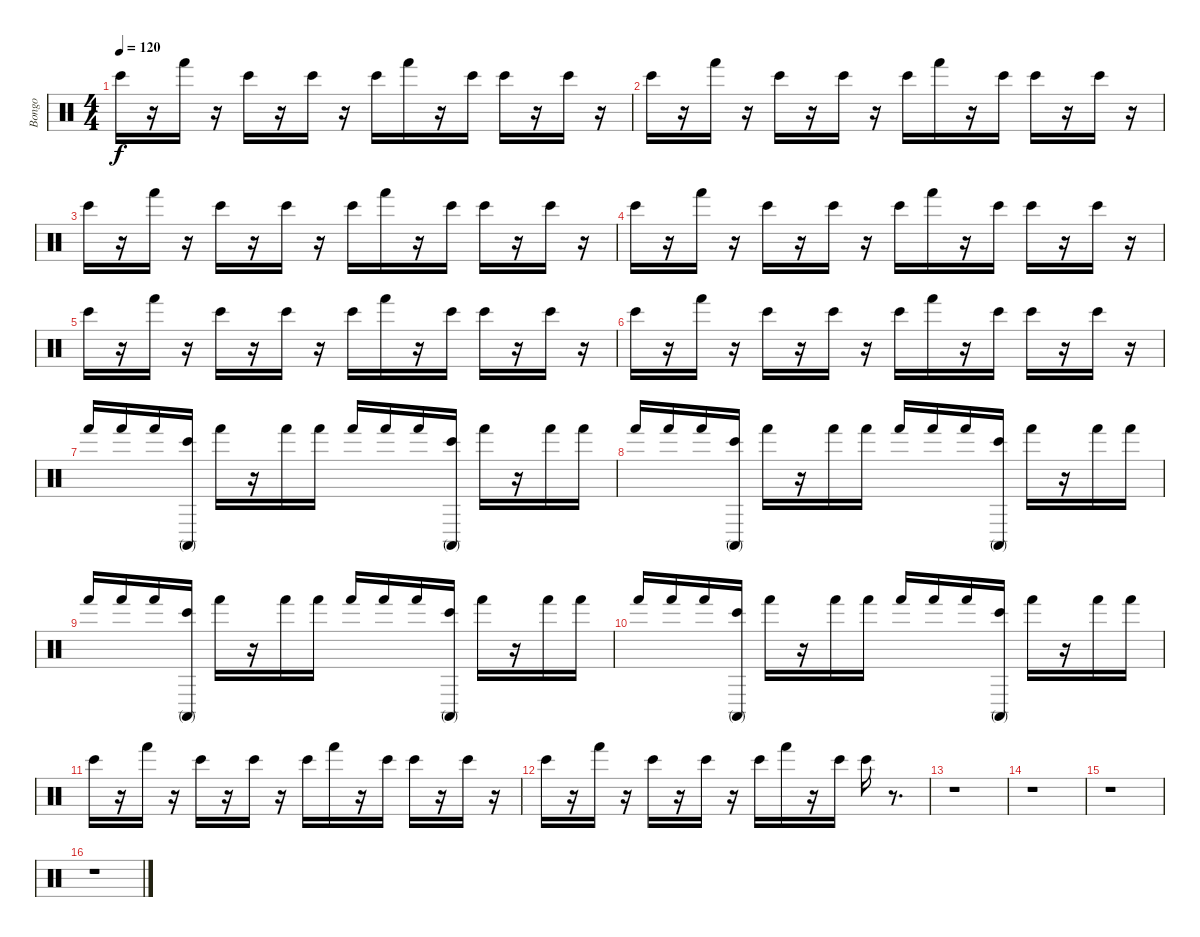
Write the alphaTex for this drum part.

\track ("Bongo" "Bongo") {instrument percussion}
\staff {score}
\articulation defaults
\ts (4 4)
\tempo 120
\clef neutral
\ks c "Bongo High (hit)".16{dy f}
r.16 "Hand (hit)".16 r.16 "Bongo High (hit)".16 r.16 "Bongo High (hit)".16 r.16 "Bongo High (hit)".16 "Hand (hit)".16 r.16 "Bongo High (hit)".16 "Bongo High (hit)".16 r.16 "Bongo High (hit)".16 r.16 |
"Bongo High (hit)".16 r.16 "Hand (hit)".16 r.16 "Bongo High (hit)".16 r.16 "Bongo High (hit)".16 r.16 "Bongo High (hit)".16 "Hand (hit)".16 r.16 "Bongo High (hit)".16 "Bongo High (hit)".16 r.16 "Bongo High (hit)".16 r.16 |
"Bongo High (hit)".16 r.16 "Hand (hit)".16 r.16 "Bongo High (hit)".16 r.16 "Bongo High (hit)".16 r.16 "Bongo High (hit)".16 "Hand (hit)".16 r.16 "Bongo High (hit)".16 "Bongo High (hit)".16 r.16 "Bongo High (hit)".16 r.16 |
"Bongo High (hit)".16 r.16 "Hand (hit)".16 r.16 "Bongo High (hit)".16 r.16 "Bongo High (hit)".16 r.16 "Bongo High (hit)".16 "Hand (hit)".16 r.16 "Bongo High (hit)".16 "Bongo High (hit)".16 r.16 "Bongo High (hit)".16 r.16 |
"Bongo High (hit)".16 r.16 "Hand (hit)".16 r.16 "Bongo High (hit)".16 r.16 "Bongo High (hit)".16 r.16 "Bongo High (hit)".16 "Hand (hit)".16 r.16 "Bongo High (hit)".16 "Bongo High (hit)".16 r.16 "Bongo High (hit)".16 r.16 |
"Bongo High (hit)".16 r.16 "Hand (hit)".16 r.16 "Bongo High (hit)".16 r.16 "Bongo High (hit)".16 r.16 "Bongo High (hit)".16 "Hand (hit)".16 r.16 "Bongo High (hit)".16 "Bongo High (hit)".16 r.16 "Bongo High (hit)".16 r.16 |
"Hand (hit)".16 "Hand (hit)".16 "Hand (hit)".16 ("Bongo High (hit)" "Conga high (mute)").16 "Hand (hit)".16 r.16 "Hand (hit)".16 "Hand (hit)".16 "Hand (hit)".16 "Hand (hit)".16 "Hand (hit)".16 ("Bongo High (hit)" "Conga high (mute)").16 "Hand (hit)".16 r.16 "Hand (hit)".16 "Hand (hit)".16 |
"Hand (hit)".16 "Hand (hit)".16 "Hand (hit)".16 ("Bongo High (hit)" "Conga high (mute)").16 "Hand (hit)".16 r.16 "Hand (hit)".16 "Hand (hit)".16 "Hand (hit)".16 "Hand (hit)".16 "Hand (hit)".16 ("Bongo High (hit)" "Conga high (mute)").16 "Hand (hit)".16 r.16 "Hand (hit)".16 "Hand (hit)".16 |
"Hand (hit)".16 "Hand (hit)".16 "Hand (hit)".16 ("Bongo High (hit)" "Conga high (mute)").16 "Hand (hit)".16 r.16 "Hand (hit)".16 "Hand (hit)".16 "Hand (hit)".16 "Hand (hit)".16 "Hand (hit)".16 ("Bongo High (hit)" "Conga high (mute)").16 "Hand (hit)".16 r.16 "Hand (hit)".16 "Hand (hit)".16 |
"Hand (hit)".16 "Hand (hit)".16 "Hand (hit)".16 ("Bongo High (hit)" "Conga high (mute)").16 "Hand (hit)".16 r.16 "Hand (hit)".16 "Hand (hit)".16 "Hand (hit)".16 "Hand (hit)".16 "Hand (hit)".16 ("Bongo High (hit)" "Conga high (mute)").16 "Hand (hit)".16 r.16 "Hand (hit)".16 "Hand (hit)".16 |
"Bongo High (hit)".16 r.16 "Hand (hit)".16 r.16 "Bongo High (hit)".16 r.16 "Bongo High (hit)".16 r.16 "Bongo High (hit)".16 "Hand (hit)".16 r.16 "Bongo High (hit)".16 "Bongo High (hit)".16 r.16 "Bongo High (hit)".16 r.16 |
"Bongo High (hit)".16 r.16 "Hand (hit)".16 r.16 "Bongo High (hit)".16 r.16 "Bongo High (hit)".16 r.16 "Bongo High (hit)".16 "Hand (hit)".16 r.16 "Bongo High (hit)".16 "Bongo High (hit)".16 r.8{d} |
r.1 |
r.1 |
r.1 |
r.1
